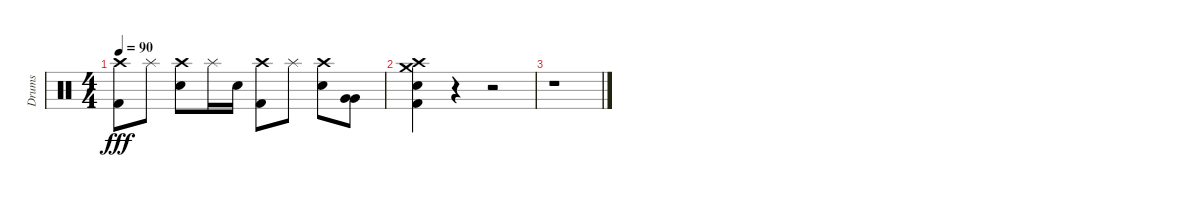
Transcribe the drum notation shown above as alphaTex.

\track ("Drums" "Drums") {instrument percussion}
\staff {score}
\articulation defaults
\ts (4 4)
\tempo 90
\clef neutral
\ks c
("Crash high (hit)" "Kick (hit) 2").8{dy fff} "Splash (hit)".8 ("Crash high (hit)" "Electric Snare (hit)").8 "Splash (hit)".16 "Electric Snare (hit)".16 ("Crash high (hit)" "Kick (hit) 2").8 "Splash (hit)".8 ("Crash high (hit)" "Electric Snare (hit)").8 ("Very Low Tom (hit)" "Very Low Tom (hit)").8 |
("Crash high (hit)" "Crash medium (hit)" "Electric Snare (hit)" "Kick (hit) 2").4 r.4 r.2 |
r.1
